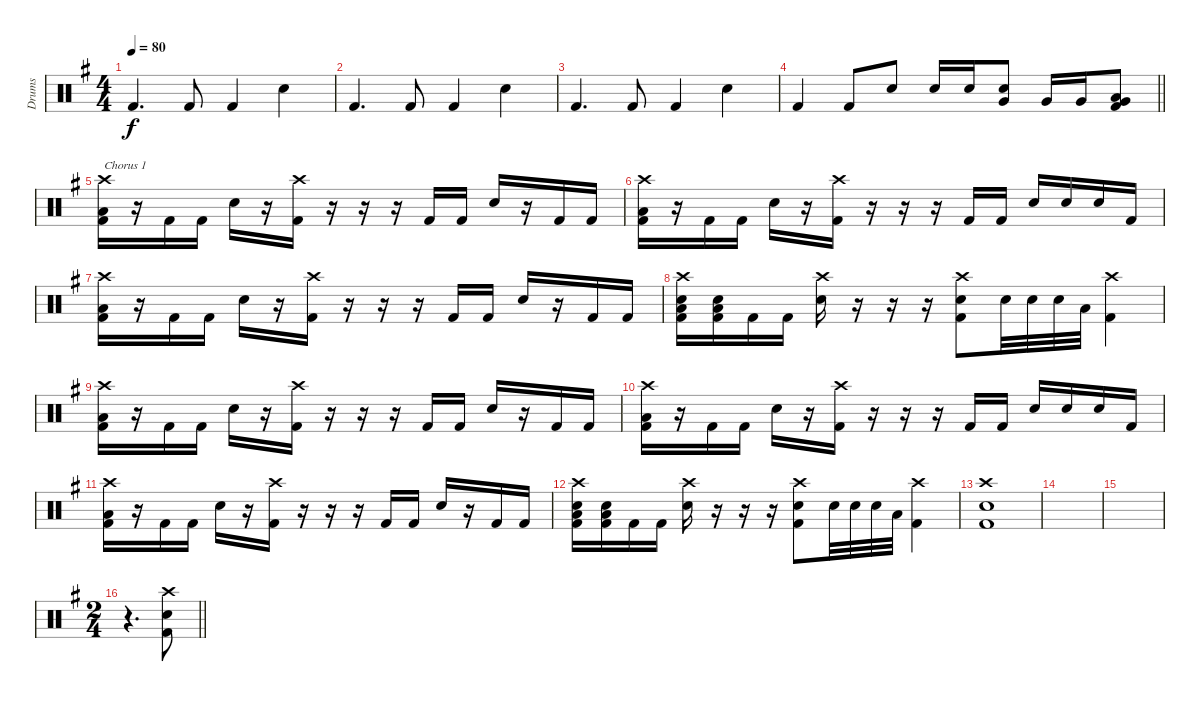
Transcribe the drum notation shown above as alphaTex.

\track ("Drums" "Drums") {instrument percussion}
\staff {score}
\articulation defaults
\ts (4 4)
\tempo 80
\clef neutral
\ks g "Kick (hit) 2".4{d dy f} "Kick (hit) 2".8 "Kick (hit) 2".4 "Snare (hit) 2".4
|
"Kick (hit) 2".4{d} "Kick (hit) 2".8 "Kick (hit) 2".4 "Snare (hit) 2".4 |
"Kick (hit) 2".4{d} "Kick (hit) 2".8 "Kick (hit) 2".4 "Snare (hit) 2".4 |
\barLineRight lightlight "Kick (hit) 2".4 "Kick (hit) 2".8 "Snare (hit) 2".8 "Snare (hit) 2".16 "Snare (hit) 2".16
("Snare (hit) 2" "Very Low Tom (hit)").8 "Very Low Tom (hit)".16 "Very Low Tom (hit)".16 ("Very Low Tom (hit)" "Low Floor Tom (hit)" "Kick (hit) 2").8 |
("Crash high (hit)" "Low Floor Tom (hit)" "Kick (hit) 2").16{txt "Chorus 1"} r.16 "Kick (hit) 2".16 "Kick (hit) 2".16 "Snare (hit) 2".16 r.16 ("Crash high (hit)" "Kick (hit) 2").16 r.16 r.16 r.16 "Kick (hit) 2".16 "Kick (hit) 2".16 "Snare (hit) 2".16 r.16 "Kick (hit) 2".16 "Kick (hit) 2".16 |
("Crash high (hit)" "Low Floor Tom (hit)" "Kick (hit) 2").16 r.16 "Kick (hit) 2".16 "Kick (hit) 2".16 "Snare (hit) 2".16 r.16 ("Crash high (hit)" "Kick (hit) 2").16 r.16 r.16 r.16 "Kick (hit) 2".16 "Kick (hit) 2".16 "Snare (hit) 2".16 "Snare (hit) 2".16 "Snare (hit) 2".16 "Kick (hit) 2".16 |
("Crash high (hit)" "Low Floor Tom (hit)" "Kick (hit) 2").16 r.16 "Kick (hit) 2".16 "Kick (hit) 2".16 "Snare (hit) 2".16 r.16 ("Crash high (hit)" "Kick (hit) 2").16 r.16 r.16 r.16 "Kick (hit) 2".16 "Kick (hit) 2".16 "Snare (hit) 2".16 r.16 "Kick (hit) 2".16 "Kick (hit) 2".16 |
("Crash high (hit)" "Snare (hit) 2" "Low Floor Tom (hit)" "Kick (hit) 2").16 ("Snare (hit) 2" "Low Floor Tom (hit)" "Kick (hit) 2").16 "Kick (hit) 2".16 "Kick (hit) 2".16 ("Crash high (hit)" "Snare (hit) 2").16 r.16 r.16 r.16 ("Crash high (hit)" "Snare (hit) 2" "Kick (hit) 2").8 "Snare (hit) 2".32 "Snare (hit) 2".32 "Snare (hit) 2".32 "Low Floor Tom (hit)".32 ("Crash high (hit)" "Kick (hit) 2").4 |
("Crash high (hit)" "Low Floor Tom (hit)" "Kick (hit) 2").16 r.16 "Kick (hit) 2".16 "Kick (hit) 2".16 "Snare (hit) 2".16 r.16 ("Crash high (hit)" "Kick (hit) 2").16 r.16 r.16 r.16 "Kick (hit) 2".16 "Kick (hit) 2".16 "Snare (hit) 2".16 r.16 "Kick (hit) 2".16 "Kick (hit) 2".16 |
("Crash high (hit)" "Low Floor Tom (hit)" "Kick (hit) 2").16 r.16 "Kick (hit) 2".16 "Kick (hit) 2".16 "Snare (hit) 2".16 r.16 ("Crash high (hit)" "Kick (hit) 2").16 r.16 r.16 r.16 "Kick (hit) 2".16 "Kick (hit) 2".16 "Snare (hit) 2".16 "Snare (hit) 2".16 "Snare (hit) 2".16 "Kick (hit) 2".16 |
("Crash high (hit)" "Low Floor Tom (hit)" "Kick (hit) 2").16 r.16 "Kick (hit) 2".16 "Kick (hit) 2".16 "Snare (hit) 2".16 r.16 ("Crash high (hit)" "Kick (hit) 2").16 r.16 r.16 r.16 "Kick (hit) 2".16 "Kick (hit) 2".16 "Snare (hit) 2".16 r.16 "Kick (hit) 2".16 "Kick (hit) 2".16 |
("Crash high (hit)" "Snare (hit) 2" "Low Floor Tom (hit)" "Kick (hit) 2").16 ("Snare (hit) 2" "Low Floor Tom (hit)" "Kick (hit) 2").16 "Kick (hit) 2".16 "Kick (hit) 2".16 ("Crash high (hit)" "Snare (hit) 2").16 r.16 r.16 r.16 ("Crash high (hit)" "Snare (hit) 2" "Kick (hit) 2").8 "Snare (hit) 2".32 "Snare (hit) 2".32 "Snare (hit) 2".32 "Low Floor Tom (hit)".32 ("Crash high (hit)" "Kick (hit) 2").4 |
("Crash high (hit)" "Snare (hit) 2" "Kick (hit) 2").1 |
|
|
\ts (2 4)
\barLineRight lightlight
r.4{d} ("Crash high (hit)" "Snare (hit) 2" "Kick (hit) 2").8
